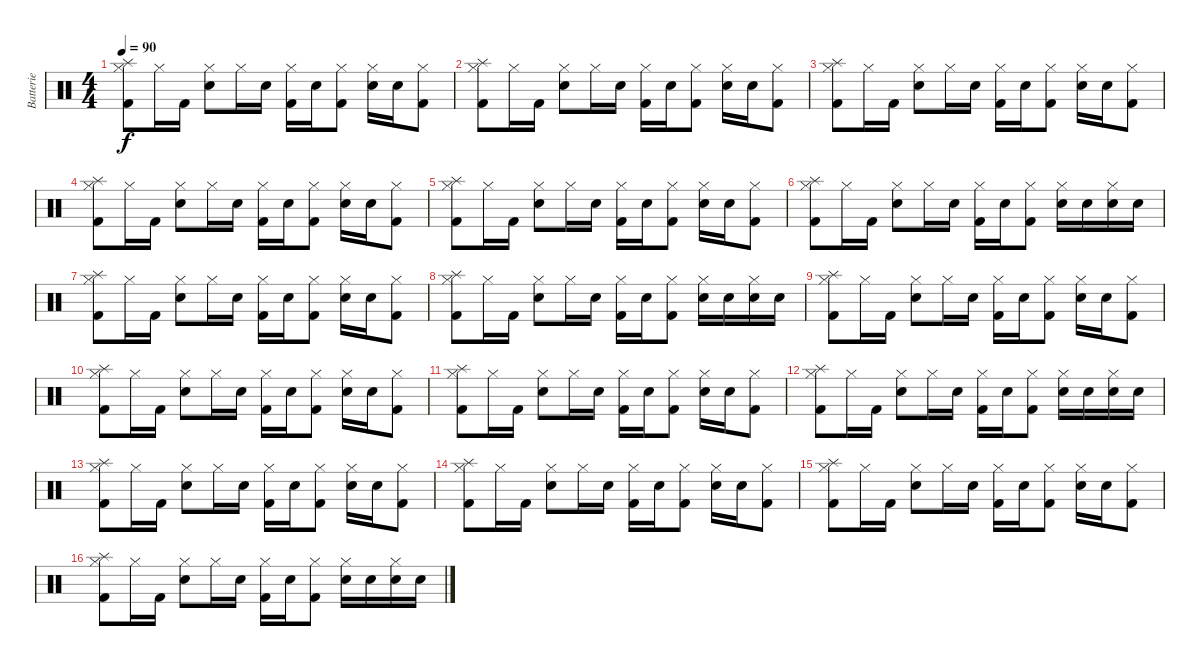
\track ("Batterie" "Batterie") {instrument percussion}
\staff {score}
\articulation defaults
\ts (4 4)
\tempo 90
\clef neutral
\ks c
("Splash (hit)" "Hi-Hat (closed)" "Kick (hit) 2").8{dy f} "Hi-Hat (closed)".16 "Kick (hit) 2".16 ("Hi-Hat (closed)" "Snare (hit) 2").8 "Hi-Hat (closed)".16 "Snare (hit) 2".16 ("Hi-Hat (closed)" "Kick (hit) 2").16 "Snare (hit) 2".16 ("Hi-Hat (closed)" "Kick (hit) 2").8 ("Hi-Hat (closed)" "Snare (hit) 2").16 "Snare (hit) 2".16 ("Hi-Hat (closed)" "Kick (hit) 2").8 |
("Splash (hit)" "Hi-Hat (closed)" "Kick (hit) 2").8 "Hi-Hat (closed)".16 "Kick (hit) 2".16 ("Hi-Hat (closed)" "Snare (hit) 2").8 "Hi-Hat (closed)".16 "Snare (hit) 2".16 ("Hi-Hat (closed)" "Kick (hit) 2").16 "Snare (hit) 2".16 ("Hi-Hat (closed)" "Kick (hit) 2").8 ("Hi-Hat (closed)" "Snare (hit) 2").16 "Snare (hit) 2".16 ("Hi-Hat (closed)" "Kick (hit) 2").8 |
("Splash (hit)" "Hi-Hat (closed)" "Kick (hit) 2").8 "Hi-Hat (closed)".16 "Kick (hit) 2".16 ("Hi-Hat (closed)" "Snare (hit) 2").8 "Hi-Hat (closed)".16 "Snare (hit) 2".16 ("Hi-Hat (closed)" "Kick (hit) 2").16 "Snare (hit) 2".16 ("Hi-Hat (closed)" "Kick (hit) 2").8 ("Hi-Hat (closed)" "Snare (hit) 2").16 "Snare (hit) 2".16 ("Hi-Hat (closed)" "Kick (hit) 2").8 |
("Splash (hit)" "Hi-Hat (closed)" "Kick (hit) 2").8 "Hi-Hat (closed)".16 "Kick (hit) 2".16 ("Hi-Hat (closed)" "Snare (hit) 2").8 "Hi-Hat (closed)".16 "Snare (hit) 2".16 ("Hi-Hat (closed)" "Kick (hit) 2").16 "Snare (hit) 2".16 ("Hi-Hat (closed)" "Kick (hit) 2").8 ("Hi-Hat (closed)" "Snare (hit) 2").16 "Snare (hit) 2".16 ("Hi-Hat (closed)" "Kick (hit) 2").8 |
("Splash (hit)" "Hi-Hat (closed)" "Kick (hit) 2").8 "Hi-Hat (closed)".16 "Kick (hit) 2".16 ("Hi-Hat (closed)" "Snare (hit) 2").8 "Hi-Hat (closed)".16 "Snare (hit) 2".16 ("Hi-Hat (closed)" "Kick (hit) 2").16 "Snare (hit) 2".16 ("Hi-Hat (closed)" "Kick (hit) 2").8 ("Hi-Hat (closed)" "Snare (hit) 2").16 "Snare (hit) 2".16 ("Hi-Hat (closed)" "Kick (hit) 2").8 |
("Splash (hit)" "Hi-Hat (closed)" "Kick (hit) 2").8 "Hi-Hat (closed)".16 "Kick (hit) 2".16 ("Hi-Hat (closed)" "Snare (hit) 2").8 "Hi-Hat (closed)".16 "Snare (hit) 2".16 ("Hi-Hat (closed)" "Kick (hit) 2").16 "Snare (hit) 2".16 ("Hi-Hat (closed)" "Kick (hit) 2").8 ("Hi-Hat (closed)" "Snare (hit) 2").16 "Snare (hit) 2".16 ("Hi-Hat (closed)" "Snare (hit) 2").16 "Snare (hit) 2".16 |
("Splash (hit)" "Hi-Hat (closed)" "Kick (hit) 2").8 "Hi-Hat (closed)".16 "Kick (hit) 2".16 ("Hi-Hat (closed)" "Snare (hit) 2").8 "Hi-Hat (closed)".16 "Snare (hit) 2".16 ("Hi-Hat (closed)" "Kick (hit) 2").16 "Snare (hit) 2".16 ("Hi-Hat (closed)" "Kick (hit) 2").8 ("Hi-Hat (closed)" "Snare (hit) 2").16 "Snare (hit) 2".16 ("Hi-Hat (closed)" "Kick (hit) 2").8 |
("Splash (hit)" "Hi-Hat (closed)" "Kick (hit) 2").8 "Hi-Hat (closed)".16 "Kick (hit) 2".16 ("Hi-Hat (closed)" "Snare (hit) 2").8 "Hi-Hat (closed)".16 "Snare (hit) 2".16 ("Hi-Hat (closed)" "Kick (hit) 2").16 "Snare (hit) 2".16 ("Hi-Hat (closed)" "Kick (hit) 2").8 ("Hi-Hat (closed)" "Snare (hit) 2").16 "Snare (hit) 2".16 ("Hi-Hat (closed)" "Snare (hit) 2").16 "Snare (hit) 2".16 |
("Splash (hit)" "Hi-Hat (closed)" "Kick (hit) 2").8 "Hi-Hat (closed)".16 "Kick (hit) 2".16 ("Hi-Hat (closed)" "Snare (hit) 2").8 "Hi-Hat (closed)".16 "Snare (hit) 2".16 ("Hi-Hat (closed)" "Kick (hit) 2").16 "Snare (hit) 2".16 ("Hi-Hat (closed)" "Kick (hit) 2").8 ("Hi-Hat (closed)" "Snare (hit) 2").16 "Snare (hit) 2".16 ("Hi-Hat (closed)" "Kick (hit) 2").8 |
("Splash (hit)" "Hi-Hat (closed)" "Kick (hit) 2").8 "Hi-Hat (closed)".16 "Kick (hit) 2".16 ("Hi-Hat (closed)" "Snare (hit) 2").8 "Hi-Hat (closed)".16 "Snare (hit) 2".16 ("Hi-Hat (closed)" "Kick (hit) 2").16 "Snare (hit) 2".16 ("Hi-Hat (closed)" "Kick (hit) 2").8 ("Hi-Hat (closed)" "Snare (hit) 2").16 "Snare (hit) 2".16 ("Hi-Hat (closed)" "Kick (hit) 2").8 |
("Splash (hit)" "Hi-Hat (closed)" "Kick (hit) 2").8 "Hi-Hat (closed)".16 "Kick (hit) 2".16 ("Hi-Hat (closed)" "Snare (hit) 2").8 "Hi-Hat (closed)".16 "Snare (hit) 2".16 ("Hi-Hat (closed)" "Kick (hit) 2").16 "Snare (hit) 2".16 ("Hi-Hat (closed)" "Kick (hit) 2").8 ("Hi-Hat (closed)" "Snare (hit) 2").16 "Snare (hit) 2".16 ("Hi-Hat (closed)" "Kick (hit) 2").8 |
("Splash (hit)" "Hi-Hat (closed)" "Kick (hit) 2").8 "Hi-Hat (closed)".16 "Kick (hit) 2".16 ("Hi-Hat (closed)" "Snare (hit) 2").8 "Hi-Hat (closed)".16 "Snare (hit) 2".16 ("Hi-Hat (closed)" "Kick (hit) 2").16 "Snare (hit) 2".16 ("Hi-Hat (closed)" "Kick (hit) 2").8 ("Hi-Hat (closed)" "Snare (hit) 2").16 "Snare (hit) 2".16 ("Hi-Hat (closed)" "Snare (hit) 2").16 "Snare (hit) 2".16 |
("Splash (hit)" "Hi-Hat (closed)" "Kick (hit) 2").8 "Hi-Hat (closed)".16 "Kick (hit) 2".16 ("Hi-Hat (closed)" "Snare (hit) 2").8 "Hi-Hat (closed)".16 "Snare (hit) 2".16 ("Hi-Hat (closed)" "Kick (hit) 2").16 "Snare (hit) 2".16 ("Hi-Hat (closed)" "Kick (hit) 2").8 ("Hi-Hat (closed)" "Snare (hit) 2").16 "Snare (hit) 2".16 ("Hi-Hat (closed)" "Kick (hit) 2").8 |
("Splash (hit)" "Hi-Hat (closed)" "Kick (hit) 2").8 "Hi-Hat (closed)".16 "Kick (hit) 2".16 ("Hi-Hat (closed)" "Snare (hit) 2").8 "Hi-Hat (closed)".16 "Snare (hit) 2".16 ("Hi-Hat (closed)" "Kick (hit) 2").16 "Snare (hit) 2".16 ("Hi-Hat (closed)" "Kick (hit) 2").8 ("Hi-Hat (closed)" "Snare (hit) 2").16 "Snare (hit) 2".16 ("Hi-Hat (closed)" "Kick (hit) 2").8 |
("Splash (hit)" "Hi-Hat (closed)" "Kick (hit) 2").8 "Hi-Hat (closed)".16 "Kick (hit) 2".16 ("Hi-Hat (closed)" "Snare (hit) 2").8 "Hi-Hat (closed)".16 "Snare (hit) 2".16 ("Hi-Hat (closed)" "Kick (hit) 2").16 "Snare (hit) 2".16 ("Hi-Hat (closed)" "Kick (hit) 2").8 ("Hi-Hat (closed)" "Snare (hit) 2").16 "Snare (hit) 2".16 ("Hi-Hat (closed)" "Kick (hit) 2").8 |
("Splash (hit)" "Hi-Hat (closed)" "Kick (hit) 2").8 "Hi-Hat (closed)".16 "Kick (hit) 2".16 ("Hi-Hat (closed)" "Snare (hit) 2").8 "Hi-Hat (closed)".16 "Snare (hit) 2".16 ("Hi-Hat (closed)" "Kick (hit) 2").16 "Snare (hit) 2".16 ("Hi-Hat (closed)" "Kick (hit) 2").8 ("Hi-Hat (closed)" "Snare (hit) 2").16 "Snare (hit) 2".16 ("Hi-Hat (closed)" "Snare (hit) 2").16 "Snare (hit) 2".16
